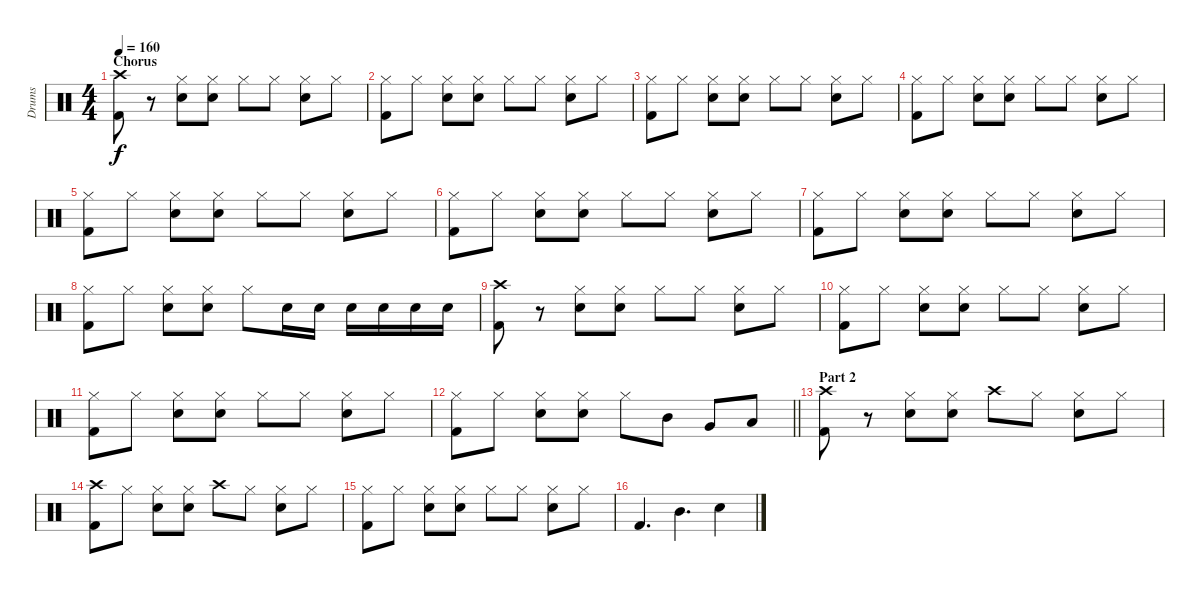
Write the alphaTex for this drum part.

\track ("Drums" "Drums") {instrument percussion}
\staff {score}
\articulation defaults
\ts (4 4)
\section ("" "Chorus")
\tempo 160
\clef neutral
\ks c
("Crash high (hit)" "Kick (hit) 2").8{dy f} r.8 ("Hi-Hat (closed)" "Electric Snare (hit)").8 ("Hi-Hat (closed)" "Electric Snare (hit)").8 "Hi-Hat (closed)".8 "Hi-Hat (closed)".8 ("Hi-Hat (closed)" "Electric Snare (hit)").8 "Hi-Hat (closed)".8 |
("Hi-Hat (closed)" "Kick (hit) 2").8 "Hi-Hat (closed)".8 ("Hi-Hat (closed)" "Electric Snare (hit)").8 ("Hi-Hat (closed)" "Electric Snare (hit)").8 "Hi-Hat (closed)".8 "Hi-Hat (closed)".8 ("Hi-Hat (closed)" "Electric Snare (hit)").8 "Hi-Hat (closed)".8 |
("Hi-Hat (closed)" "Kick (hit) 2").8 "Hi-Hat (closed)".8 ("Hi-Hat (closed)" "Electric Snare (hit)").8 ("Hi-Hat (closed)" "Electric Snare (hit)").8 "Hi-Hat (closed)".8 "Hi-Hat (closed)".8 ("Hi-Hat (closed)" "Electric Snare (hit)").8 "Hi-Hat (closed)".8 |
("Hi-Hat (closed)" "Kick (hit) 2").8 "Hi-Hat (closed)".8 ("Hi-Hat (closed)" "Electric Snare (hit)").8 ("Hi-Hat (closed)" "Electric Snare (hit)").8 "Hi-Hat (closed)".8 "Hi-Hat (closed)".8 ("Hi-Hat (closed)" "Electric Snare (hit)").8 "Hi-Hat (closed)".8 |
("Hi-Hat (closed)" "Kick (hit) 2").8 "Hi-Hat (closed)".8 ("Hi-Hat (closed)" "Electric Snare (hit)").8 ("Hi-Hat (closed)" "Electric Snare (hit)").8 "Hi-Hat (closed)".8 "Hi-Hat (closed)".8 ("Hi-Hat (closed)" "Electric Snare (hit)").8 "Hi-Hat (closed)".8 |
("Hi-Hat (closed)" "Kick (hit) 2").8 "Hi-Hat (closed)".8 ("Hi-Hat (closed)" "Electric Snare (hit)").8 ("Hi-Hat (closed)" "Electric Snare (hit)").8 "Hi-Hat (closed)".8 "Hi-Hat (closed)".8 ("Hi-Hat (closed)" "Electric Snare (hit)").8 "Hi-Hat (closed)".8 |
("Hi-Hat (closed)" "Kick (hit) 2").8 "Hi-Hat (closed)".8 ("Hi-Hat (closed)" "Electric Snare (hit)").8 ("Hi-Hat (closed)" "Electric Snare (hit)").8 "Hi-Hat (closed)".8 "Hi-Hat (closed)".8 ("Hi-Hat (closed)" "Electric Snare (hit)").8 "Hi-Hat (closed)".8 |
("Hi-Hat (closed)" "Kick (hit) 2").8 "Hi-Hat (closed)".8 ("Hi-Hat (closed)" "Electric Snare (hit)").8 ("Hi-Hat (closed)" "Electric Snare (hit)").8 "Hi-Hat (closed)".8 "Electric Snare (hit)".16 "Electric Snare (hit)".16 "Electric Snare (hit)".16 "Electric Snare (hit)".16 "Electric Snare (hit)".16 "Electric Snare (hit)".16 |
("Crash high (hit)" "Kick (hit) 2").8 r.8 ("Hi-Hat (closed)" "Electric Snare (hit)").8 ("Hi-Hat (closed)" "Electric Snare (hit)").8 "Hi-Hat (closed)".8 "Hi-Hat (closed)".8 ("Hi-Hat (closed)" "Electric Snare (hit)").8 "Hi-Hat (closed)".8 |
("Hi-Hat (closed)" "Kick (hit) 2").8 "Hi-Hat (closed)".8 ("Hi-Hat (closed)" "Electric Snare (hit)").8 ("Hi-Hat (closed)" "Electric Snare (hit)").8 "Hi-Hat (closed)".8 "Hi-Hat (closed)".8 ("Hi-Hat (closed)" "Electric Snare (hit)").8 "Hi-Hat (closed)".8 |
("Hi-Hat (closed)" "Kick (hit) 2").8 "Hi-Hat (closed)".8 ("Hi-Hat (closed)" "Electric Snare (hit)").8 ("Hi-Hat (closed)" "Electric Snare (hit)").8 "Hi-Hat (closed)".8 "Hi-Hat (closed)".8 ("Hi-Hat (closed)" "Electric Snare (hit)").8 "Hi-Hat (closed)".8 |
\barLineRight lightlight
("Hi-Hat (closed)" "Kick (hit) 2").8 "Hi-Hat (closed)".8 ("Hi-Hat (closed)" "Electric Snare (hit)").8 ("Hi-Hat (closed)" "Electric Snare (hit)").8 "Hi-Hat (closed)".8 "Mid Tom (hit)".8 "Very Low Tom (hit)".8 "Low Tom (hit)".8 |
\section ("" "Part 2")
("Crash high (hit)" "Kick (hit) 2").8 r.8 ("Hi-Hat (closed)" "Electric Snare (hit)").8 ("Hi-Hat (closed)" "Electric Snare (hit)").8 "Crash high (hit)".8 "Hi-Hat (closed)".8 ("Hi-Hat (closed)" "Electric Snare (hit)").8 "Hi-Hat (closed)".8 |
("Crash high (hit)" "Kick (hit) 2").8 "Hi-Hat (closed)".8 ("Hi-Hat (closed)" "Electric Snare (hit)").8 ("Hi-Hat (closed)" "Electric Snare (hit)").8 "Crash high (hit)".8 "Hi-Hat (closed)".8 ("Hi-Hat (closed)" "Electric Snare (hit)").8 "Hi-Hat (closed)".8 |
("Hi-Hat (closed)" "Kick (hit) 2").8 "Hi-Hat (closed)".8 ("Hi-Hat (closed)" "Electric Snare (hit)").8 ("Hi-Hat (closed)" "Electric Snare (hit)").8 "Hi-Hat (closed)".8 "Hi-Hat (closed)".8 ("Hi-Hat (closed)" "Electric Snare (hit)").8 "Hi-Hat (closed)".8 |
"Kick (hit) 2".4{d} "Mid Tom (hit)".4{d} "Electric Snare (hit)".4
